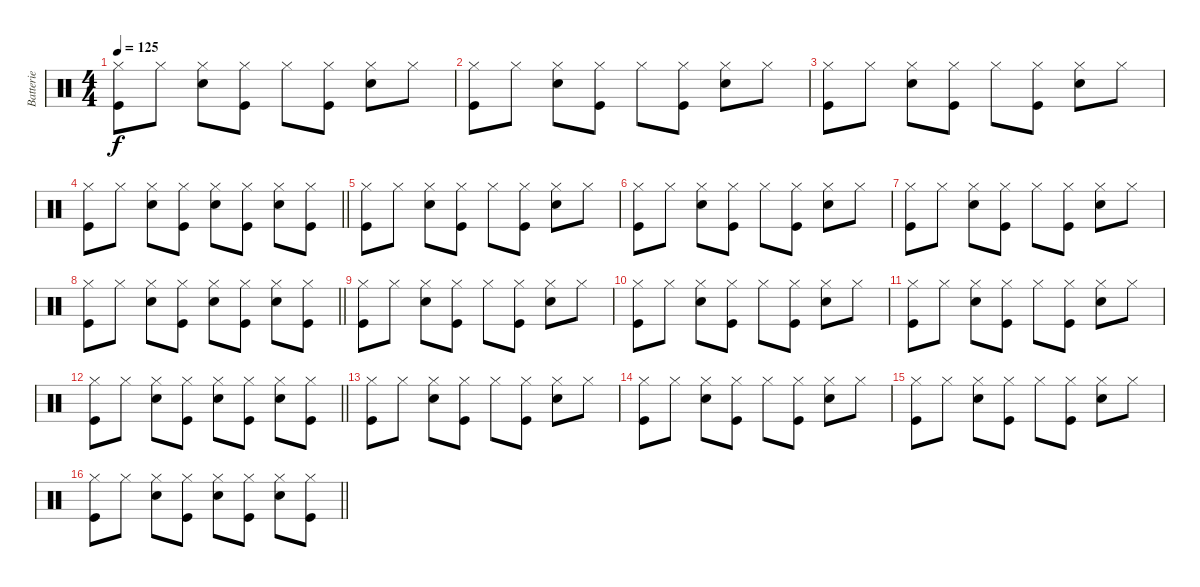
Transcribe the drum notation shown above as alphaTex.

\track ("Batterie" "Batterie") {instrument percussion}
\staff {score}
\articulation defaults
\ts (4 4)
\tempo 125
\clef neutral
\ks c
("Hi-Hat (closed)" "Kick (hit)").8{dy f} "Hi-Hat (closed)".8 ("Hi-Hat (closed)" "Snare (hit) 2").8 ("Hi-Hat (closed)" "Kick (hit)").8 "Hi-Hat (closed)".8 ("Hi-Hat (closed)" "Kick (hit)").8 ("Hi-Hat (closed)" "Snare (hit) 2").8 "Hi-Hat (closed)".8 |
("Hi-Hat (closed)" "Kick (hit)").8 "Hi-Hat (closed)".8 ("Hi-Hat (closed)" "Snare (hit) 2").8 ("Hi-Hat (closed)" "Kick (hit)").8 "Hi-Hat (closed)".8 ("Hi-Hat (closed)" "Kick (hit)").8 ("Hi-Hat (closed)" "Snare (hit) 2").8 "Hi-Hat (closed)".8 |
("Hi-Hat (closed)" "Kick (hit)").8 "Hi-Hat (closed)".8 ("Hi-Hat (closed)" "Snare (hit) 2").8 ("Hi-Hat (closed)" "Kick (hit)").8 "Hi-Hat (closed)".8 ("Hi-Hat (closed)" "Kick (hit)").8 ("Hi-Hat (closed)" "Snare (hit) 2").8 "Hi-Hat (closed)".8 |
\barLineRight lightlight
("Hi-Hat (closed)" "Kick (hit)").8 "Hi-Hat (closed)".8 ("Hi-Hat (closed)" "Snare (hit) 2").8 ("Hi-Hat (closed)" "Kick (hit)").8 ("Hi-Hat (closed)" "Snare (hit) 2").8 ("Hi-Hat (closed)" "Kick (hit)").8 ("Hi-Hat (closed)" "Snare (hit) 2").8 ("Hi-Hat (closed)" "Kick (hit)").8 |
("Hi-Hat (closed)" "Kick (hit)").8 "Hi-Hat (closed)".8 ("Hi-Hat (closed)" "Snare (hit) 2").8 ("Hi-Hat (closed)" "Kick (hit)").8 "Hi-Hat (closed)".8 ("Hi-Hat (closed)" "Kick (hit)").8 ("Hi-Hat (closed)" "Snare (hit) 2").8 "Hi-Hat (closed)".8 |
("Hi-Hat (closed)" "Kick (hit)").8 "Hi-Hat (closed)".8 ("Hi-Hat (closed)" "Snare (hit) 2").8 ("Hi-Hat (closed)" "Kick (hit)").8 "Hi-Hat (closed)".8 ("Hi-Hat (closed)" "Kick (hit)").8 ("Hi-Hat (closed)" "Snare (hit) 2").8 "Hi-Hat (closed)".8 |
("Hi-Hat (closed)" "Kick (hit)").8 "Hi-Hat (closed)".8 ("Hi-Hat (closed)" "Snare (hit) 2").8 ("Hi-Hat (closed)" "Kick (hit)").8 "Hi-Hat (closed)".8 ("Hi-Hat (closed)" "Kick (hit)").8 ("Hi-Hat (closed)" "Snare (hit) 2").8 "Hi-Hat (closed)".8 |
\barLineRight lightlight
("Hi-Hat (closed)" "Kick (hit)").8 "Hi-Hat (closed)".8 ("Hi-Hat (closed)" "Snare (hit) 2").8 ("Hi-Hat (closed)" "Kick (hit)").8 ("Hi-Hat (closed)" "Snare (hit) 2").8 ("Hi-Hat (closed)" "Kick (hit)").8 ("Hi-Hat (closed)" "Snare (hit) 2").8 ("Hi-Hat (closed)" "Kick (hit)").8 |
("Hi-Hat (closed)" "Kick (hit)").8 "Hi-Hat (closed)".8 ("Hi-Hat (closed)" "Snare (hit) 2").8 ("Hi-Hat (closed)" "Kick (hit)").8 "Hi-Hat (closed)".8 ("Hi-Hat (closed)" "Kick (hit)").8 ("Hi-Hat (closed)" "Snare (hit) 2").8 "Hi-Hat (closed)".8 |
("Hi-Hat (closed)" "Kick (hit)").8 "Hi-Hat (closed)".8 ("Hi-Hat (closed)" "Snare (hit) 2").8 ("Hi-Hat (closed)" "Kick (hit)").8 "Hi-Hat (closed)".8 ("Hi-Hat (closed)" "Kick (hit)").8 ("Hi-Hat (closed)" "Snare (hit) 2").8 "Hi-Hat (closed)".8 |
("Hi-Hat (closed)" "Kick (hit)").8 "Hi-Hat (closed)".8 ("Hi-Hat (closed)" "Snare (hit) 2").8 ("Hi-Hat (closed)" "Kick (hit)").8 "Hi-Hat (closed)".8 ("Hi-Hat (closed)" "Kick (hit)").8 ("Hi-Hat (closed)" "Snare (hit) 2").8 "Hi-Hat (closed)".8 |
\barLineRight lightlight
("Hi-Hat (closed)" "Kick (hit)").8 "Hi-Hat (closed)".8 ("Hi-Hat (closed)" "Snare (hit) 2").8 ("Hi-Hat (closed)" "Kick (hit)").8 ("Hi-Hat (closed)" "Snare (hit) 2").8 ("Hi-Hat (closed)" "Kick (hit)").8 ("Hi-Hat (closed)" "Snare (hit) 2").8 ("Hi-Hat (closed)" "Kick (hit)").8 |
("Hi-Hat (closed)" "Kick (hit)").8 "Hi-Hat (closed)".8 ("Hi-Hat (closed)" "Snare (hit) 2").8 ("Hi-Hat (closed)" "Kick (hit)").8 "Hi-Hat (closed)".8 ("Hi-Hat (closed)" "Kick (hit)").8 ("Hi-Hat (closed)" "Snare (hit) 2").8 "Hi-Hat (closed)".8 |
("Hi-Hat (closed)" "Kick (hit)").8 "Hi-Hat (closed)".8 ("Hi-Hat (closed)" "Snare (hit) 2").8 ("Hi-Hat (closed)" "Kick (hit)").8 "Hi-Hat (closed)".8 ("Hi-Hat (closed)" "Kick (hit)").8 ("Hi-Hat (closed)" "Snare (hit) 2").8 "Hi-Hat (closed)".8 |
("Hi-Hat (closed)" "Kick (hit)").8 "Hi-Hat (closed)".8 ("Hi-Hat (closed)" "Snare (hit) 2").8 ("Hi-Hat (closed)" "Kick (hit)").8 "Hi-Hat (closed)".8 ("Hi-Hat (closed)" "Kick (hit)").8 ("Hi-Hat (closed)" "Snare (hit) 2").8 "Hi-Hat (closed)".8 |
\barLineRight lightlight
("Hi-Hat (closed)" "Kick (hit)").8 "Hi-Hat (closed)".8 ("Hi-Hat (closed)" "Snare (hit) 2").8 ("Hi-Hat (closed)" "Kick (hit)").8 ("Hi-Hat (closed)" "Snare (hit) 2").8 ("Hi-Hat (closed)" "Kick (hit)").8 ("Hi-Hat (closed)" "Snare (hit) 2").8 ("Hi-Hat (closed)" "Kick (hit)").8
